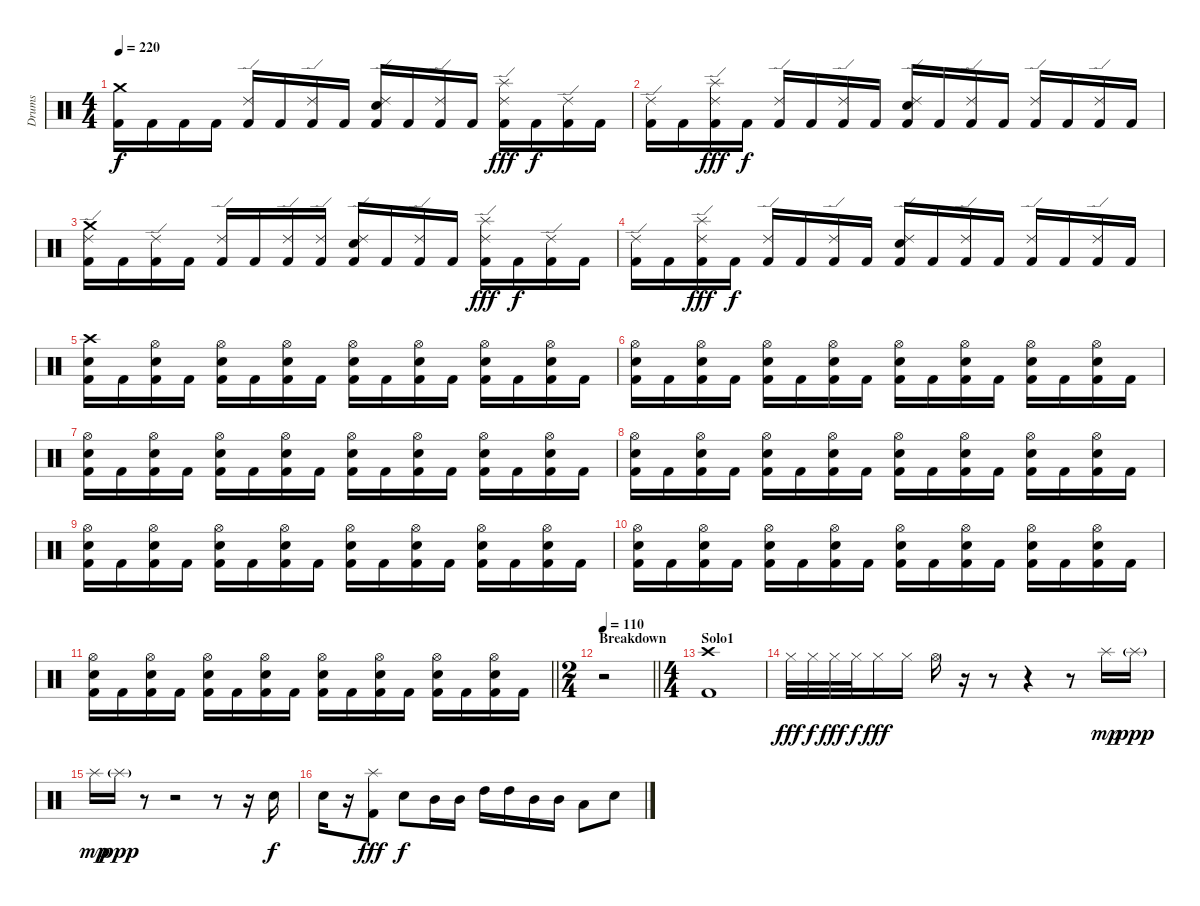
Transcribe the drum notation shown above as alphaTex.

\track ("Drums" "Drums") {instrument percussion}
\staff {score}
\articulation defaults
\ts (4 4)
\tempo 220
\clef neutral
\ks c
("Crash medium (hit)" "Kick (hit) 2").16{dy f} "Kick (hit) 2".16 "Kick (hit) 2".16 "Kick (hit) 2".16 ("Ride (edge) 2" "Kick (hit) 2").16 "Kick (hit) 2".16 ("Ride (edge) 2" "Kick (hit) 2").16 "Kick (hit) 2".16 ("Ride (edge) 2" "Electric Snare (hit)" "Kick (hit) 2").16 "Kick (hit) 2".16 ("Ride (edge) 2" "Kick (hit) 2").16 "Kick (hit) 2".16 ("Splash (hit)" "Ride (edge) 2" "Kick (hit) 2").16{dy fff} "Kick (hit) 2".16{dy f} ("Ride (edge) 2" "Kick (hit) 2").16 "Kick (hit) 2".16 |
("Ride (edge) 2" "Kick (hit) 2").16 "Kick (hit) 2".16 ("Splash (hit)" "Ride (edge) 2" "Kick (hit) 2").16{dy fff} "Kick (hit) 2".16{dy f} ("Ride (edge) 2" "Kick (hit) 2").16 "Kick (hit) 2".16 ("Ride (edge) 2" "Kick (hit) 2").16 "Kick (hit) 2".16 ("Ride (edge) 2" "Electric Snare (hit)" "Kick (hit) 2").16 "Kick (hit) 2".16 ("Ride (edge) 2" "Kick (hit) 2").16 "Kick (hit) 2".16 ("Ride (edge) 2" "Kick (hit) 2").16 "Kick (hit) 2".16 ("Ride (edge) 2" "Kick (hit) 2").16 "Kick (hit) 2".16 |
("Crash medium (hit)" "Ride (edge) 2" "Kick (hit) 2").16 "Kick (hit) 2".16 ("Ride (edge) 2" "Kick (hit) 2").16 "Kick (hit) 2".16 ("Ride (edge) 2" "Kick (hit) 2").16 "Kick (hit) 2".16 ("Ride (edge) 2" "Kick (hit) 2").16 ("Ride (edge) 2" "Kick (hit) 2").16 ("Ride (edge) 2" "Electric Snare (hit)" "Kick (hit) 2").16 "Kick (hit) 2".16 ("Ride (edge) 2" "Kick (hit) 2").16 "Kick (hit) 2".16 ("Splash (hit)" "Ride (edge) 2" "Kick (hit) 2").16{dy fff} "Kick (hit) 2".16{dy f} ("Ride (edge) 2" "Kick (hit) 2").16 "Kick (hit) 2".16 |
("Ride (edge) 2" "Kick (hit) 2").16 "Kick (hit) 2".16 ("Splash (hit)" "Ride (edge) 2" "Kick (hit) 2").16{dy fff} "Kick (hit) 2".16{dy f} ("Ride (edge) 2" "Kick (hit) 2").16 "Kick (hit) 2".16 ("Ride (edge) 2" "Kick (hit) 2").16 "Kick (hit) 2".16 ("Ride (edge) 2" "Electric Snare (hit)" "Kick (hit) 2").16 "Kick (hit) 2".16 ("Ride (edge) 2" "Kick (hit) 2").16 "Kick (hit) 2".16 ("Ride (edge) 2" "Kick (hit) 2").16 "Kick (hit) 2".16 ("Ride (edge) 2" "Kick (hit) 2").16 "Kick (hit) 2".16 |
("Crash high (hit)" "Electric Snare (hit)" "Kick (hit) 2").16 "Kick (hit) 2".16 ("Hi-Hat (open)" "Electric Snare (hit)" "Kick (hit) 2").16 "Kick (hit) 2".16 ("Hi-Hat (open)" "Electric Snare (hit)" "Kick (hit) 2").16 "Kick (hit) 2".16 ("Hi-Hat (open)" "Electric Snare (hit)" "Kick (hit) 2").16 "Kick (hit) 2".16 ("Hi-Hat (open)" "Electric Snare (hit)" "Kick (hit) 2").16 "Kick (hit) 2".16 ("Hi-Hat (open)" "Electric Snare (hit)" "Kick (hit) 2").16 "Kick (hit) 2".16 ("Hi-Hat (open)" "Electric Snare (hit)" "Kick (hit) 2").16 "Kick (hit) 2".16 ("Hi-Hat (open)" "Electric Snare (hit)" "Kick (hit) 2").16 "Kick (hit) 2".16 |
("Hi-Hat (open)" "Electric Snare (hit)" "Kick (hit) 2").16 "Kick (hit) 2".16 ("Hi-Hat (open)" "Electric Snare (hit)" "Kick (hit) 2").16 "Kick (hit) 2".16 ("Hi-Hat (open)" "Electric Snare (hit)" "Kick (hit) 2").16 "Kick (hit) 2".16 ("Hi-Hat (open)" "Electric Snare (hit)" "Kick (hit) 2").16 "Kick (hit) 2".16 ("Hi-Hat (open)" "Electric Snare (hit)" "Kick (hit) 2").16 "Kick (hit) 2".16 ("Hi-Hat (open)" "Electric Snare (hit)" "Kick (hit) 2").16 "Kick (hit) 2".16 ("Hi-Hat (open)" "Electric Snare (hit)" "Kick (hit) 2").16 "Kick (hit) 2".16 ("Hi-Hat (open)" "Electric Snare (hit)" "Kick (hit) 2").16 "Kick (hit) 2".16 |
("Hi-Hat (open)" "Electric Snare (hit)" "Kick (hit) 2").16 "Kick (hit) 2".16 ("Hi-Hat (open)" "Electric Snare (hit)" "Kick (hit) 2").16 "Kick (hit) 2".16 ("Hi-Hat (open)" "Electric Snare (hit)" "Kick (hit) 2").16 "Kick (hit) 2".16 ("Hi-Hat (open)" "Electric Snare (hit)" "Kick (hit) 2").16 "Kick (hit) 2".16 ("Hi-Hat (open)" "Electric Snare (hit)" "Kick (hit) 2").16 "Kick (hit) 2".16 ("Hi-Hat (open)" "Electric Snare (hit)" "Kick (hit) 2").16 "Kick (hit) 2".16 ("Hi-Hat (open)" "Electric Snare (hit)" "Kick (hit) 2").16 "Kick (hit) 2".16 ("Hi-Hat (open)" "Electric Snare (hit)" "Kick (hit) 2").16 "Kick (hit) 2".16 |
("Hi-Hat (open)" "Electric Snare (hit)" "Kick (hit) 2").16 "Kick (hit) 2".16 ("Hi-Hat (open)" "Electric Snare (hit)" "Kick (hit) 2").16 "Kick (hit) 2".16 ("Hi-Hat (open)" "Electric Snare (hit)" "Kick (hit) 2").16 "Kick (hit) 2".16 ("Hi-Hat (open)" "Electric Snare (hit)" "Kick (hit) 2").16 "Kick (hit) 2".16 ("Hi-Hat (open)" "Electric Snare (hit)" "Kick (hit) 2").16 "Kick (hit) 2".16 ("Hi-Hat (open)" "Electric Snare (hit)" "Kick (hit) 2").16 "Kick (hit) 2".16 ("Hi-Hat (open)" "Electric Snare (hit)" "Kick (hit) 2").16 "Kick (hit) 2".16 ("Hi-Hat (open)" "Electric Snare (hit)" "Kick (hit) 2").16 "Kick (hit) 2".16 |
("Hi-Hat (open)" "Electric Snare (hit)" "Kick (hit) 2").16 "Kick (hit) 2".16 ("Hi-Hat (open)" "Electric Snare (hit)" "Kick (hit) 2").16 "Kick (hit) 2".16 ("Hi-Hat (open)" "Electric Snare (hit)" "Kick (hit) 2").16 "Kick (hit) 2".16 ("Hi-Hat (open)" "Electric Snare (hit)" "Kick (hit) 2").16 "Kick (hit) 2".16 ("Hi-Hat (open)" "Electric Snare (hit)" "Kick (hit) 2").16 "Kick (hit) 2".16 ("Hi-Hat (open)" "Electric Snare (hit)" "Kick (hit) 2").16 "Kick (hit) 2".16 ("Hi-Hat (open)" "Electric Snare (hit)" "Kick (hit) 2").16 "Kick (hit) 2".16 ("Hi-Hat (open)" "Electric Snare (hit)" "Kick (hit) 2").16 "Kick (hit) 2".16 |
("Hi-Hat (open)" "Electric Snare (hit)" "Kick (hit) 2").16 "Kick (hit) 2".16 ("Hi-Hat (open)" "Electric Snare (hit)" "Kick (hit) 2").16 "Kick (hit) 2".16 ("Hi-Hat (open)" "Electric Snare (hit)" "Kick (hit) 2").16 "Kick (hit) 2".16 ("Hi-Hat (open)" "Electric Snare (hit)" "Kick (hit) 2").16 "Kick (hit) 2".16 ("Hi-Hat (open)" "Electric Snare (hit)" "Kick (hit) 2").16 "Kick (hit) 2".16 ("Hi-Hat (open)" "Electric Snare (hit)" "Kick (hit) 2").16 "Kick (hit) 2".16 ("Hi-Hat (open)" "Electric Snare (hit)" "Kick (hit) 2").16 "Kick (hit) 2".16 ("Hi-Hat (open)" "Electric Snare (hit)" "Kick (hit) 2").16 "Kick (hit) 2".16 |
\barLineRight lightlight
("Hi-Hat (open)" "Electric Snare (hit)" "Kick (hit) 2").16 "Kick (hit) 2".16 ("Hi-Hat (open)" "Electric Snare (hit)" "Kick (hit) 2").16 "Kick (hit) 2".16 ("Hi-Hat (open)" "Electric Snare (hit)" "Kick (hit) 2").16 "Kick (hit) 2".16 ("Hi-Hat (open)" "Electric Snare (hit)" "Kick (hit) 2").16 "Kick (hit) 2".16 ("Hi-Hat (open)" "Electric Snare (hit)" "Kick (hit) 2").16 "Kick (hit) 2".16 ("Hi-Hat (open)" "Electric Snare (hit)" "Kick (hit) 2").16 "Kick (hit) 2".16 ("Hi-Hat (open)" "Electric Snare (hit)" "Kick (hit) 2").16 "Kick (hit) 2".16 ("Hi-Hat (open)" "Electric Snare (hit)" "Kick (hit) 2").16 "Kick (hit) 2".16 |
\ts (2 4)
\section ("" "Breakdown")
\tempo 110
\barLineRight lightlight
r.2 |
\ts (4 4)
\section ("" "Solo1")
("Crash high (hit)" "Kick (hit) 2").1 |
"Hi-Hat (closed)".32{dy fff} "Hi-Hat (closed)".32{dy f} "Hi-Hat (closed)".32{dy fff} "Hi-Hat (closed)".32{dy f} "Hi-Hat (closed)".16{dy fff} "Hi-Hat (closed)".16 "Hi-Hat (open)".16 r.16 r.8 r.4 r.8 "Splash (hit)".16{dy mp} "Splash (hit)"{g}.16{dy ppp} |
"Splash (hit)".16{dy mp} "Splash (hit)"{g}.16{dy ppp} r.8 r.2 r.8 r.16 "Electric Snare (hit)".16{dy f} |
"Electric Snare (hit)".16 r.16 ("Splash (hit)" "Kick (hit) 2").8{dy fff} "Electric Snare (hit)".8{dy f} "Mid Tom (hit)".16 "Mid Tom (hit)".16 "High Tom (hit)".16 "High Tom (hit)".16 "Mid Tom (hit)".16 "Mid Tom (hit)".16 "Low Tom (hit)".8 "Electric Snare (hit)".8
